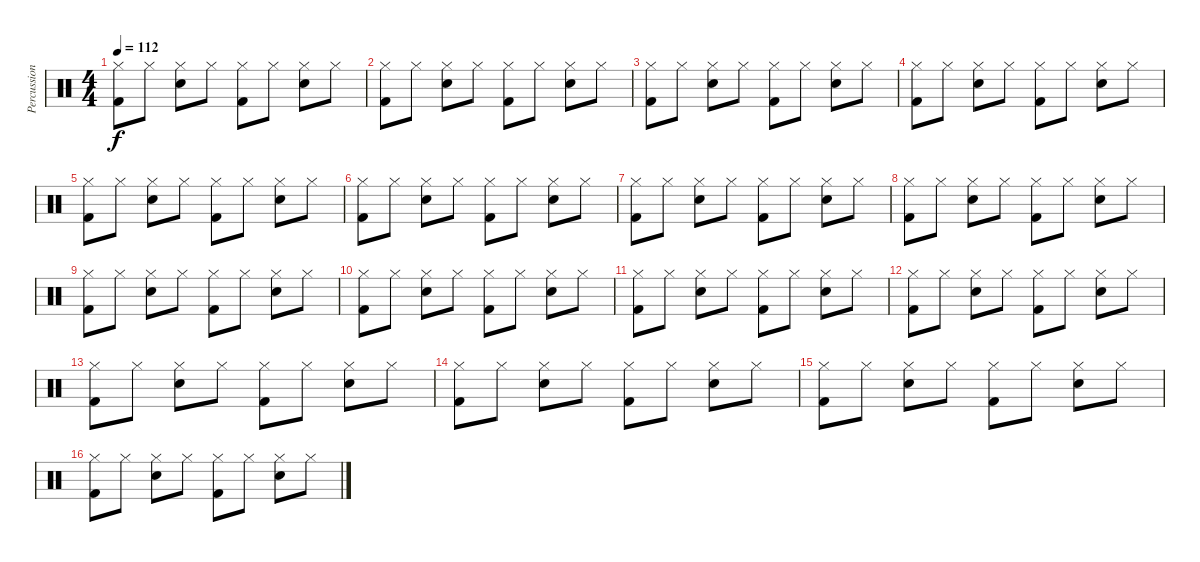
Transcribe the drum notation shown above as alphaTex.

\track ("Percussion" "Percussion") {instrument percussion}
\staff {score}
\articulation defaults
\ts (4 4)
\tempo 112
\clef neutral
\ks c
("Hi-Hat (closed)" "Kick (hit) 2").8{dy f} "Hi-Hat (closed)".8 ("Hi-Hat (closed)" "Snare (hit) 2").8 "Hi-Hat (closed)".8 ("Hi-Hat (closed)" "Kick (hit) 2").8 "Hi-Hat (closed)".8 ("Hi-Hat (closed)" "Snare (hit) 2").8 "Hi-Hat (closed)".8 |
("Hi-Hat (closed)" "Kick (hit) 2").8 "Hi-Hat (closed)".8 ("Hi-Hat (closed)" "Snare (hit) 2").8 "Hi-Hat (closed)".8 ("Hi-Hat (closed)" "Kick (hit) 2").8 "Hi-Hat (closed)".8 ("Hi-Hat (closed)" "Snare (hit) 2").8 "Hi-Hat (closed)".8 |
("Hi-Hat (closed)" "Kick (hit) 2").8 "Hi-Hat (closed)".8 ("Hi-Hat (closed)" "Snare (hit) 2").8 "Hi-Hat (closed)".8 ("Hi-Hat (closed)" "Kick (hit) 2").8 "Hi-Hat (closed)".8 ("Hi-Hat (closed)" "Snare (hit) 2").8 "Hi-Hat (closed)".8 |
("Hi-Hat (closed)" "Kick (hit) 2").8 "Hi-Hat (closed)".8 ("Hi-Hat (closed)" "Snare (hit) 2").8 "Hi-Hat (closed)".8 ("Hi-Hat (closed)" "Kick (hit) 2").8 "Hi-Hat (closed)".8 ("Hi-Hat (closed)" "Snare (hit) 2").8 "Hi-Hat (closed)".8 |
("Hi-Hat (closed)" "Kick (hit) 2").8 "Hi-Hat (closed)".8 ("Hi-Hat (closed)" "Snare (hit) 2").8 "Hi-Hat (closed)".8 ("Hi-Hat (closed)" "Kick (hit) 2").8 "Hi-Hat (closed)".8 ("Hi-Hat (closed)" "Snare (hit) 2").8 "Hi-Hat (closed)".8 |
("Hi-Hat (closed)" "Kick (hit) 2").8 "Hi-Hat (closed)".8 ("Hi-Hat (closed)" "Snare (hit) 2").8 "Hi-Hat (closed)".8 ("Hi-Hat (closed)" "Kick (hit) 2").8 "Hi-Hat (closed)".8 ("Hi-Hat (closed)" "Snare (hit) 2").8 "Hi-Hat (closed)".8 |
("Hi-Hat (closed)" "Kick (hit) 2").8 "Hi-Hat (closed)".8 ("Hi-Hat (closed)" "Snare (hit) 2").8 "Hi-Hat (closed)".8 ("Hi-Hat (closed)" "Kick (hit) 2").8 "Hi-Hat (closed)".8 ("Hi-Hat (closed)" "Snare (hit) 2").8 "Hi-Hat (closed)".8 |
("Hi-Hat (closed)" "Kick (hit) 2").8 "Hi-Hat (closed)".8 ("Hi-Hat (closed)" "Snare (hit) 2").8 "Hi-Hat (closed)".8 ("Hi-Hat (closed)" "Kick (hit) 2").8 "Hi-Hat (closed)".8 ("Hi-Hat (closed)" "Snare (hit) 2").8 "Hi-Hat (closed)".8 |
("Hi-Hat (closed)" "Kick (hit) 2").8 "Hi-Hat (closed)".8 ("Hi-Hat (closed)" "Snare (hit) 2").8 "Hi-Hat (closed)".8 ("Hi-Hat (closed)" "Kick (hit) 2").8 "Hi-Hat (closed)".8 ("Hi-Hat (closed)" "Snare (hit) 2").8 "Hi-Hat (closed)".8 |
("Hi-Hat (closed)" "Kick (hit) 2").8 "Hi-Hat (closed)".8 ("Hi-Hat (closed)" "Snare (hit) 2").8 "Hi-Hat (closed)".8 ("Hi-Hat (closed)" "Kick (hit) 2").8 "Hi-Hat (closed)".8 ("Hi-Hat (closed)" "Snare (hit) 2").8 "Hi-Hat (closed)".8 |
("Hi-Hat (closed)" "Kick (hit) 2").8 "Hi-Hat (closed)".8 ("Hi-Hat (closed)" "Snare (hit) 2").8 "Hi-Hat (closed)".8 ("Hi-Hat (closed)" "Kick (hit) 2").8 "Hi-Hat (closed)".8 ("Hi-Hat (closed)" "Snare (hit) 2").8 "Hi-Hat (closed)".8 |
("Hi-Hat (closed)" "Kick (hit) 2").8 "Hi-Hat (closed)".8 ("Hi-Hat (closed)" "Snare (hit) 2").8 "Hi-Hat (closed)".8 ("Hi-Hat (closed)" "Kick (hit) 2").8 "Hi-Hat (closed)".8 ("Hi-Hat (closed)" "Snare (hit) 2").8 "Hi-Hat (closed)".8 |
("Hi-Hat (closed)" "Kick (hit) 2").8 "Hi-Hat (closed)".8 ("Hi-Hat (closed)" "Snare (hit) 2").8 "Hi-Hat (closed)".8 ("Hi-Hat (closed)" "Kick (hit) 2").8 "Hi-Hat (closed)".8 ("Hi-Hat (closed)" "Snare (hit) 2").8 "Hi-Hat (closed)".8 |
("Hi-Hat (closed)" "Kick (hit) 2").8 "Hi-Hat (closed)".8 ("Hi-Hat (closed)" "Snare (hit) 2").8 "Hi-Hat (closed)".8 ("Hi-Hat (closed)" "Kick (hit) 2").8 "Hi-Hat (closed)".8 ("Hi-Hat (closed)" "Snare (hit) 2").8 "Hi-Hat (closed)".8 |
("Hi-Hat (closed)" "Kick (hit) 2").8 "Hi-Hat (closed)".8 ("Hi-Hat (closed)" "Snare (hit) 2").8 "Hi-Hat (closed)".8 ("Hi-Hat (closed)" "Kick (hit) 2").8 "Hi-Hat (closed)".8 ("Hi-Hat (closed)" "Snare (hit) 2").8 "Hi-Hat (closed)".8 |
("Hi-Hat (closed)" "Kick (hit) 2").8 "Hi-Hat (closed)".8 ("Hi-Hat (closed)" "Snare (hit) 2").8 "Hi-Hat (closed)".8 ("Hi-Hat (closed)" "Kick (hit) 2").8 "Hi-Hat (closed)".8 ("Hi-Hat (closed)" "Snare (hit) 2").8 "Hi-Hat (closed)".8
